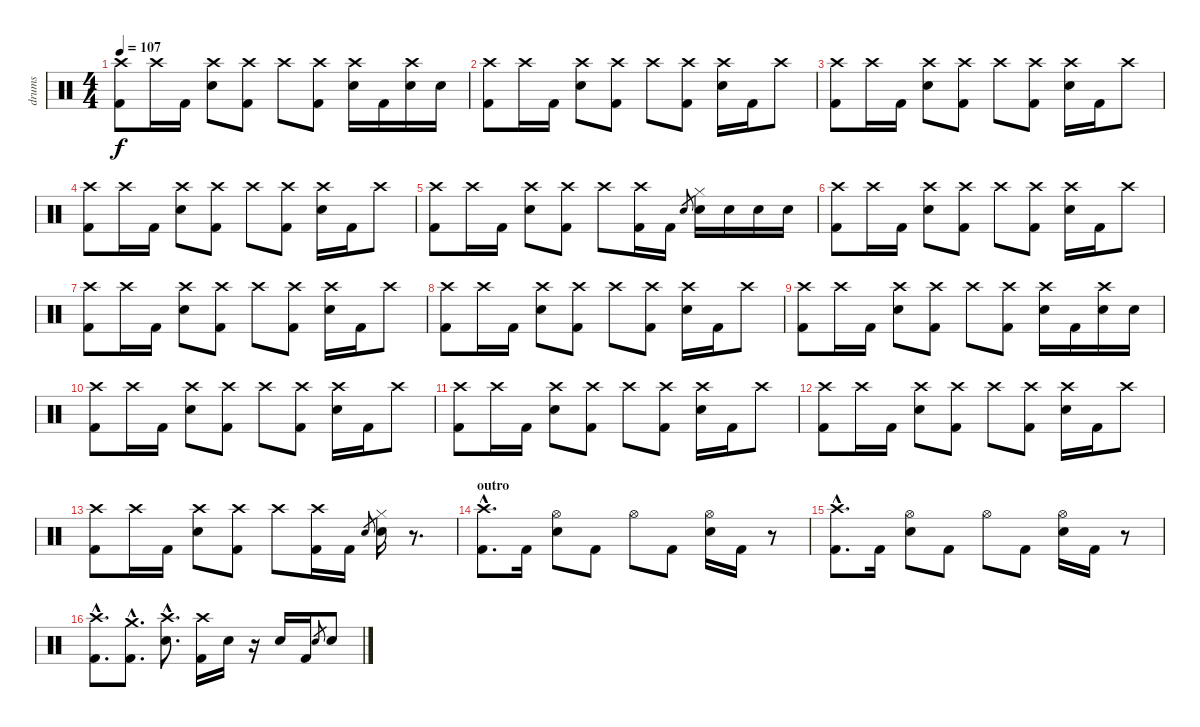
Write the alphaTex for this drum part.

\track ("drums" "drums") {instrument percussion}
\staff {score}
\articulation defaults
\ts (4 4)
\tempo 107
\clef neutral
\ks c
("Crash high (hit)" "Kick (hit) 2").8{dy f} "Crash high (hit)".16 "Kick (hit) 2".16 ("Crash high (hit)" "Electric Snare (hit)").8 ("Crash high (hit)" "Kick (hit) 2").8 "Crash high (hit)".8 ("Crash high (hit)" "Kick (hit) 2").8 ("Crash high (hit)" "Electric Snare (hit)").16 "Kick (hit) 2".16 ("Crash high (hit)" "Electric Snare (hit)").16 "Electric Snare (hit)".16 |
("Crash high (hit)" "Kick (hit) 2").8 "Crash high (hit)".16 "Kick (hit) 2".16 ("Crash high (hit)" "Electric Snare (hit)").8 ("Crash high (hit)" "Kick (hit) 2").8 "Crash high (hit)".8 ("Crash high (hit)" "Kick (hit) 2").8 ("Crash high (hit)" "Electric Snare (hit)").16 "Kick (hit) 2".16 "Crash high (hit)".8 |
("Crash high (hit)" "Kick (hit) 2").8 "Crash high (hit)".16 "Kick (hit) 2".16 ("Crash high (hit)" "Electric Snare (hit)").8 ("Crash high (hit)" "Kick (hit) 2").8 "Crash high (hit)".8 ("Crash high (hit)" "Kick (hit) 2").8 ("Crash high (hit)" "Electric Snare (hit)").16 "Kick (hit) 2".16 "Crash high (hit)".8 |
("Crash high (hit)" "Kick (hit) 2").8 "Crash high (hit)".16 "Kick (hit) 2".16 ("Crash high (hit)" "Electric Snare (hit)").8 ("Crash high (hit)" "Kick (hit) 2").8 "Crash high (hit)".8 ("Crash high (hit)" "Kick (hit) 2").8 ("Crash high (hit)" "Electric Snare (hit)").16 "Kick (hit) 2".16 "Crash high (hit)".8 |
("Crash high (hit)" "Kick (hit) 2").8 "Crash high (hit)".16 "Kick (hit) 2".16 ("Crash high (hit)" "Electric Snare (hit)").8 ("Crash high (hit)" "Kick (hit) 2").8 "Crash high (hit)".8 ("Crash high (hit)" "Kick (hit) 2").16 "Kick (hit) 2".16 "Electric Snare (hit)".8{gr} ("Hi-Hat (closed)" "Electric Snare (hit)").16 "Electric Snare (hit)".16 "Electric Snare (hit)".16 "Electric Snare (hit)".16 |
("Crash high (hit)" "Kick (hit) 2").8 "Crash high (hit)".16 "Kick (hit) 2".16 ("Crash high (hit)" "Electric Snare (hit)").8 ("Crash high (hit)" "Kick (hit) 2").8 "Crash high (hit)".8 ("Crash high (hit)" "Kick (hit) 2").8 ("Crash high (hit)" "Electric Snare (hit)").16 "Kick (hit) 2".16 "Crash high (hit)".8 |
("Crash high (hit)" "Kick (hit) 2").8 "Crash high (hit)".16 "Kick (hit) 2".16 ("Crash high (hit)" "Electric Snare (hit)").8 ("Crash high (hit)" "Kick (hit) 2").8 "Crash high (hit)".8 ("Crash high (hit)" "Kick (hit) 2").8 ("Crash high (hit)" "Electric Snare (hit)").16 "Kick (hit) 2".16 "Crash high (hit)".8 |
("Crash high (hit)" "Kick (hit) 2").8 "Crash high (hit)".16 "Kick (hit) 2".16 ("Crash high (hit)" "Electric Snare (hit)").8 ("Crash high (hit)" "Kick (hit) 2").8 "Crash high (hit)".8 ("Crash high (hit)" "Kick (hit) 2").8 ("Crash high (hit)" "Electric Snare (hit)").16 "Kick (hit) 2".16 "Crash high (hit)".8 |
("Crash high (hit)" "Kick (hit) 2").8 "Crash high (hit)".16 "Kick (hit) 2".16 ("Crash high (hit)" "Electric Snare (hit)").8 ("Crash high (hit)" "Kick (hit) 2").8 "Crash high (hit)".8 ("Crash high (hit)" "Kick (hit) 2").8 ("Crash high (hit)" "Electric Snare (hit)").16 "Kick (hit) 2".16 ("Crash high (hit)" "Electric Snare (hit)").16 "Electric Snare (hit)".16 |
("Crash high (hit)" "Kick (hit) 2").8 "Crash high (hit)".16 "Kick (hit) 2".16 ("Crash high (hit)" "Electric Snare (hit)").8 ("Crash high (hit)" "Kick (hit) 2").8 "Crash high (hit)".8 ("Crash high (hit)" "Kick (hit) 2").8 ("Crash high (hit)" "Electric Snare (hit)").16 "Kick (hit) 2".16 "Crash high (hit)".8 |
("Crash high (hit)" "Kick (hit) 2").8 "Crash high (hit)".16 "Kick (hit) 2".16 ("Crash high (hit)" "Electric Snare (hit)").8 ("Crash high (hit)" "Kick (hit) 2").8 "Crash high (hit)".8 ("Crash high (hit)" "Kick (hit) 2").8 ("Crash high (hit)" "Electric Snare (hit)").16 "Kick (hit) 2".16 "Crash high (hit)".8 |
("Crash high (hit)" "Kick (hit) 2").8 "Crash high (hit)".16 "Kick (hit) 2".16 ("Crash high (hit)" "Electric Snare (hit)").8 ("Crash high (hit)" "Kick (hit) 2").8 "Crash high (hit)".8 ("Crash high (hit)" "Kick (hit) 2").8 ("Crash high (hit)" "Electric Snare (hit)").16 "Kick (hit) 2".16 "Crash high (hit)".8 |
("Crash high (hit)" "Kick (hit) 2").8 "Crash high (hit)".16 "Kick (hit) 2".16 ("Crash high (hit)" "Electric Snare (hit)").8 ("Crash high (hit)" "Kick (hit) 2").8 "Crash high (hit)".8 ("Crash high (hit)" "Kick (hit) 2").16 "Kick (hit) 2".16 "Electric Snare (hit)".8{gr} ("Hi-Hat (closed)" "Electric Snare (hit)").16 r.8{d} |
\section ("" "outro")
("Crash high (hit)"{hac} "Kick (hit) 2"{hac}).8{d} "Kick (hit) 2".16 ("Hi-Hat (open)" "Electric Snare (hit)").8 "Kick (hit) 2".8 "Hi-Hat (open)".8 "Kick (hit) 2".8 ("Hi-Hat (open)" "Electric Snare (hit)").16 "Kick (hit) 2".16 r.8 |
("Crash high (hit)"{hac} "Kick (hit) 2"{hac}).8{d} "Kick (hit) 2".16 ("Hi-Hat (open)" "Electric Snare (hit)").8 "Kick (hit) 2".8 "Hi-Hat (open)".8 "Kick (hit) 2".8 ("Hi-Hat (open)" "Electric Snare (hit)").16 "Kick (hit) 2".16 r.8 |
("Crash high (hit)"{hac} "Kick (hit) 2"{hac}).8{d} ("Crash medium (hit)"{hac} "Kick (hit) 2"{hac}).8{d} ("Crash high (hit)"{hac} "Electric Snare (hit)"{hac}).8{d} ("Crash high (hit)" "Kick (hit) 2").16 "Electric Snare (hit)".16 r.16 "Electric Snare (hit)".16 "Kick (hit) 2".16 "Electric Snare (hit)".8{gr} "Electric Snare (hit)".8
